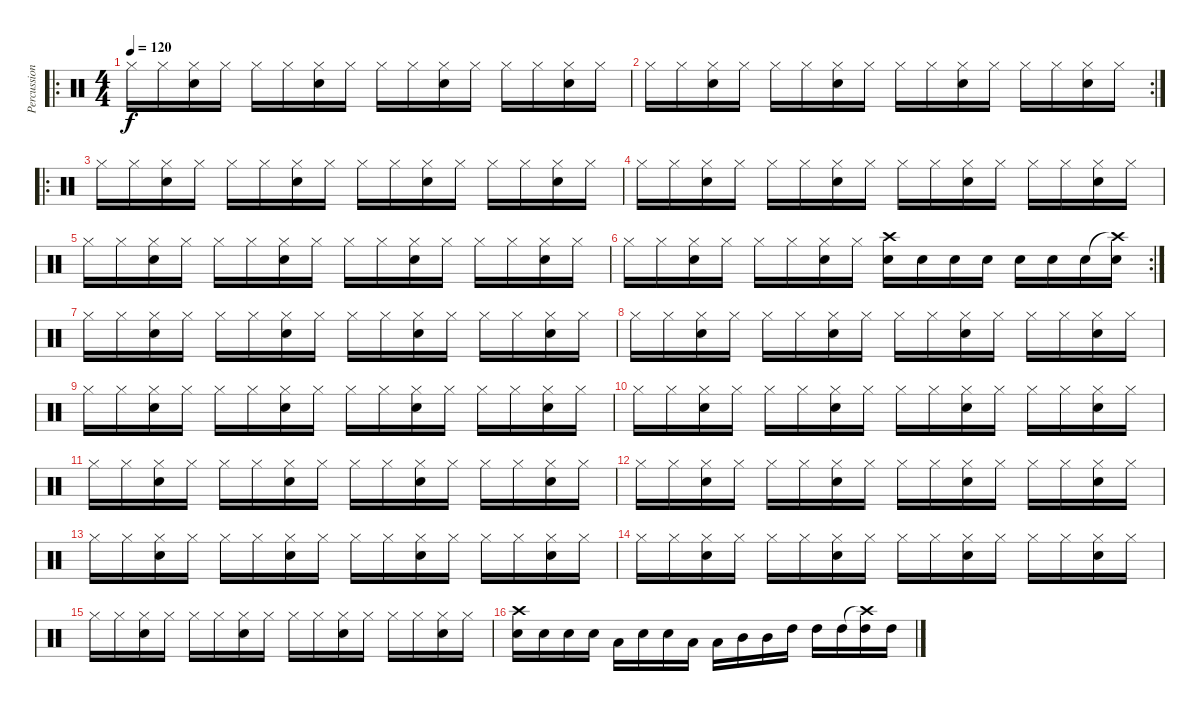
\track ("Percussions" "Percussion") {instrument percussion}
\staff {score}
\articulation defaults
\ro
\ts (4 4)
\tempo 120
\clef neutral
\ks c "Hi-Hat (closed)".16{dy f} "Hi-Hat (closed)".16
("Hi-Hat (closed)" "Snare (hit) 2").16 "Hi-Hat (closed)".16 "Hi-Hat (closed)".16 "Hi-Hat (closed)".16 ("Hi-Hat (closed)" "Snare (hit) 2").16 "Hi-Hat (closed)".16 "Hi-Hat (closed)".16 "Hi-Hat (closed)".16 ("Hi-Hat (closed)" "Snare (hit) 2").16 "Hi-Hat (closed)".16 "Hi-Hat (closed)".16 "Hi-Hat (closed)".16 ("Hi-Hat (closed)" "Snare (hit) 2").16 "Hi-Hat (closed)".16 |
\rc 2 "Hi-Hat (closed)".16 "Hi-Hat (closed)".16
("Hi-Hat (closed)" "Snare (hit) 2").16 "Hi-Hat (closed)".16 "Hi-Hat (closed)".16 "Hi-Hat (closed)".16 ("Hi-Hat (closed)" "Snare (hit) 2").16 "Hi-Hat (closed)".16 "Hi-Hat (closed)".16 "Hi-Hat (closed)".16 ("Hi-Hat (closed)" "Snare (hit) 2").16 "Hi-Hat (closed)".16 "Hi-Hat (closed)".16 "Hi-Hat (closed)".16 ("Hi-Hat (closed)" "Snare (hit) 2").16 "Hi-Hat (closed)".16 |
\ro "Hi-Hat (closed)".16 "Hi-Hat (closed)".16
("Hi-Hat (closed)" "Snare (hit) 2").16 "Hi-Hat (closed)".16 "Hi-Hat (closed)".16 "Hi-Hat (closed)".16 ("Hi-Hat (closed)" "Snare (hit) 2").16 "Hi-Hat (closed)".16 "Hi-Hat (closed)".16 "Hi-Hat (closed)".16 ("Hi-Hat (closed)" "Snare (hit) 2").16 "Hi-Hat (closed)".16 "Hi-Hat (closed)".16 "Hi-Hat (closed)".16 ("Hi-Hat (closed)" "Snare (hit) 2").16 "Hi-Hat (closed)".16 |
"Hi-Hat (closed)".16 "Hi-Hat (closed)".16 ("Hi-Hat (closed)" "Snare (hit) 2").16 "Hi-Hat (closed)".16 "Hi-Hat (closed)".16 "Hi-Hat (closed)".16 ("Hi-Hat (closed)" "Snare (hit) 2").16 "Hi-Hat (closed)".16 "Hi-Hat (closed)".16 "Hi-Hat (closed)".16 ("Hi-Hat (closed)" "Snare (hit) 2").16 "Hi-Hat (closed)".16 "Hi-Hat (closed)".16 "Hi-Hat (closed)".16 ("Hi-Hat (closed)" "Snare (hit) 2").16 "Hi-Hat (closed)".16 |
"Hi-Hat (closed)".16 "Hi-Hat (closed)".16 ("Hi-Hat (closed)" "Snare (hit) 2").16 "Hi-Hat (closed)".16 "Hi-Hat (closed)".16 "Hi-Hat (closed)".16 ("Hi-Hat (closed)" "Snare (hit) 2").16 "Hi-Hat (closed)".16 "Hi-Hat (closed)".16 "Hi-Hat (closed)".16 ("Hi-Hat (closed)" "Snare (hit) 2").16 "Hi-Hat (closed)".16 "Hi-Hat (closed)".16 "Hi-Hat (closed)".16 ("Hi-Hat (closed)" "Snare (hit) 2").16 "Hi-Hat (closed)".16 |
\rc 2 "Hi-Hat (closed)".16 "Hi-Hat (closed)".16
("Hi-Hat (closed)" "Snare (hit) 2").16 "Hi-Hat (closed)".16 "Hi-Hat (closed)".16 "Hi-Hat (closed)".16 ("Hi-Hat (closed)" "Snare (hit) 2").16 "Hi-Hat (closed)".16 ("Crash high (hit)" "Snare (hit) 2").16 "Snare (hit) 2".16 "Snare (hit) 2".16 "Snare (hit) 2".16 "Snare (hit) 2".16 "Snare (hit) 2".16 "Snare (hit) 2".16 ("Crash high (hit)"{t} "Snare (hit) 2").16 |
"Hi-Hat (closed)".16 "Hi-Hat (closed)".16 ("Hi-Hat (closed)" "Snare (hit) 2").16 "Hi-Hat (closed)".16 "Hi-Hat (closed)".16 "Hi-Hat (closed)".16 ("Hi-Hat (closed)" "Snare (hit) 2").16 "Hi-Hat (closed)".16 "Hi-Hat (closed)".16 "Hi-Hat (closed)".16 ("Hi-Hat (closed)" "Snare (hit) 2").16 "Hi-Hat (closed)".16 "Hi-Hat (closed)".16 "Hi-Hat (closed)".16 ("Hi-Hat (closed)" "Snare (hit) 2").16 "Hi-Hat (closed)".16 |
"Hi-Hat (closed)".16 "Hi-Hat (closed)".16 ("Hi-Hat (closed)" "Snare (hit) 2").16 "Hi-Hat (closed)".16 "Hi-Hat (closed)".16 "Hi-Hat (closed)".16 ("Hi-Hat (closed)" "Snare (hit) 2").16 "Hi-Hat (closed)".16 "Hi-Hat (closed)".16 "Hi-Hat (closed)".16 ("Hi-Hat (closed)" "Snare (hit) 2").16 "Hi-Hat (closed)".16 "Hi-Hat (closed)".16 "Hi-Hat (closed)".16 ("Hi-Hat (closed)" "Snare (hit) 2").16 "Hi-Hat (closed)".16 |
"Hi-Hat (closed)".16 "Hi-Hat (closed)".16 ("Hi-Hat (closed)" "Snare (hit) 2").16 "Hi-Hat (closed)".16 "Hi-Hat (closed)".16 "Hi-Hat (closed)".16 ("Hi-Hat (closed)" "Snare (hit) 2").16 "Hi-Hat (closed)".16 "Hi-Hat (closed)".16 "Hi-Hat (closed)".16 ("Hi-Hat (closed)" "Snare (hit) 2").16 "Hi-Hat (closed)".16 "Hi-Hat (closed)".16 "Hi-Hat (closed)".16 ("Hi-Hat (closed)" "Snare (hit) 2").16 "Hi-Hat (closed)".16 |
"Hi-Hat (closed)".16 "Hi-Hat (closed)".16 ("Hi-Hat (closed)" "Snare (hit) 2").16 "Hi-Hat (closed)".16 "Hi-Hat (closed)".16 "Hi-Hat (closed)".16 ("Hi-Hat (closed)" "Snare (hit) 2").16 "Hi-Hat (closed)".16 "Hi-Hat (closed)".16 "Hi-Hat (closed)".16 ("Hi-Hat (closed)" "Snare (hit) 2").16 "Hi-Hat (closed)".16 "Hi-Hat (closed)".16 "Hi-Hat (closed)".16 ("Hi-Hat (closed)" "Snare (hit) 2").16 "Hi-Hat (closed)".16 |
"Hi-Hat (closed)".16 "Hi-Hat (closed)".16 ("Hi-Hat (closed)" "Snare (hit) 2").16 "Hi-Hat (closed)".16 "Hi-Hat (closed)".16 "Hi-Hat (closed)".16 ("Hi-Hat (closed)" "Snare (hit) 2").16 "Hi-Hat (closed)".16 "Hi-Hat (closed)".16 "Hi-Hat (closed)".16 ("Hi-Hat (closed)" "Snare (hit) 2").16 "Hi-Hat (closed)".16 "Hi-Hat (closed)".16 "Hi-Hat (closed)".16 ("Hi-Hat (closed)" "Snare (hit) 2").16 "Hi-Hat (closed)".16 |
"Hi-Hat (closed)".16 "Hi-Hat (closed)".16 ("Hi-Hat (closed)" "Snare (hit) 2").16 "Hi-Hat (closed)".16 "Hi-Hat (closed)".16 "Hi-Hat (closed)".16 ("Hi-Hat (closed)" "Snare (hit) 2").16 "Hi-Hat (closed)".16 "Hi-Hat (closed)".16 "Hi-Hat (closed)".16 ("Hi-Hat (closed)" "Snare (hit) 2").16 "Hi-Hat (closed)".16 "Hi-Hat (closed)".16 "Hi-Hat (closed)".16 ("Hi-Hat (closed)" "Snare (hit) 2").16 "Hi-Hat (closed)".16 |
"Hi-Hat (closed)".16 "Hi-Hat (closed)".16 ("Hi-Hat (closed)" "Snare (hit) 2").16 "Hi-Hat (closed)".16 "Hi-Hat (closed)".16 "Hi-Hat (closed)".16 ("Hi-Hat (closed)" "Snare (hit) 2").16 "Hi-Hat (closed)".16 "Hi-Hat (closed)".16 "Hi-Hat (closed)".16 ("Hi-Hat (closed)" "Snare (hit) 2").16 "Hi-Hat (closed)".16 "Hi-Hat (closed)".16 "Hi-Hat (closed)".16 ("Hi-Hat (closed)" "Snare (hit) 2").16 "Hi-Hat (closed)".16 |
"Hi-Hat (closed)".16 "Hi-Hat (closed)".16 ("Hi-Hat (closed)" "Snare (hit) 2").16 "Hi-Hat (closed)".16 "Hi-Hat (closed)".16 "Hi-Hat (closed)".16 ("Hi-Hat (closed)" "Snare (hit) 2").16 "Hi-Hat (closed)".16 "Hi-Hat (closed)".16 "Hi-Hat (closed)".16 ("Hi-Hat (closed)" "Snare (hit) 2").16 "Hi-Hat (closed)".16 "Hi-Hat (closed)".16 "Hi-Hat (closed)".16 ("Hi-Hat (closed)" "Snare (hit) 2").16 "Hi-Hat (closed)".16 |
"Hi-Hat (closed)".16 "Hi-Hat (closed)".16 ("Hi-Hat (closed)" "Snare (hit) 2").16 "Hi-Hat (closed)".16 "Hi-Hat (closed)".16 "Hi-Hat (closed)".16 ("Hi-Hat (closed)" "Snare (hit) 2").16 "Hi-Hat (closed)".16 "Hi-Hat (closed)".16 "Hi-Hat (closed)".16 ("Hi-Hat (closed)" "Snare (hit) 2").16 "Hi-Hat (closed)".16 "Hi-Hat (closed)".16 "Hi-Hat (closed)".16 ("Hi-Hat (closed)" "Snare (hit) 2").16 "Hi-Hat (closed)".16 |
("Crash high (hit)" "Snare (hit) 2").16 "Snare (hit) 2".16 "Snare (hit) 2".16 "Snare (hit) 2".16 "Low Floor Tom (hit)".16 "Snare (hit) 2".16 "Snare (hit) 2".16 "Low Floor Tom (hit)".16 "Low Floor Tom (hit)".16 "Mid Tom (hit)".16 "Mid Tom (hit)".16 "High Tom (hit)".16 "High Tom (hit)".16 "High Tom (hit)".16 ("Crash high (hit)"{t} "High Tom (hit)").16 "High Tom (hit)".16
